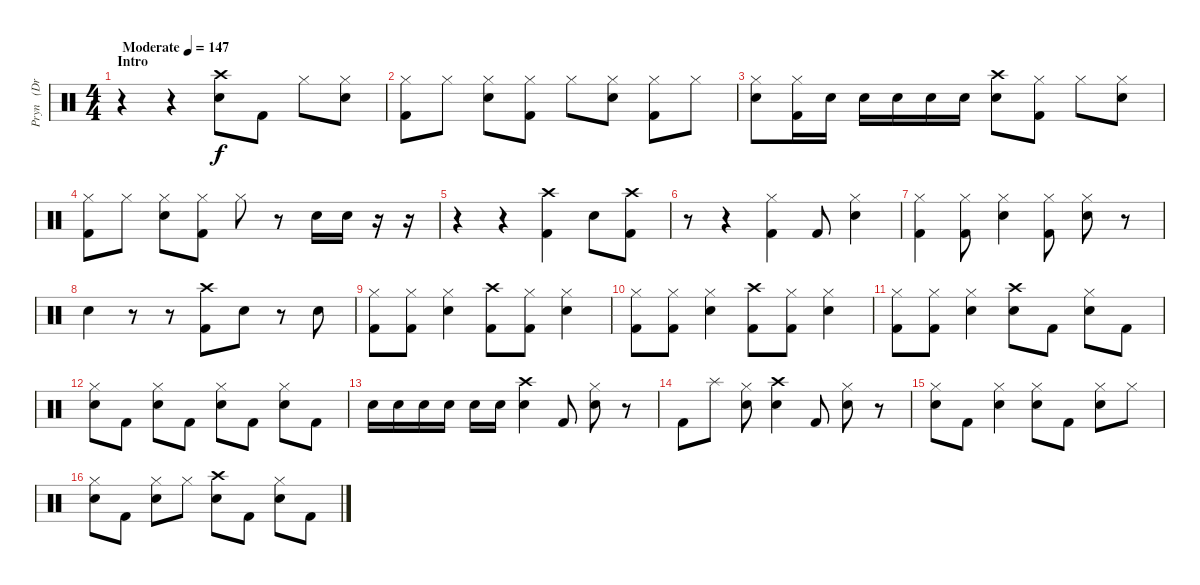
\track ("Pryn   (Drums)" "Pryn   (Dr") {instrument percussion}
\staff {score}
\articulation defaults
\ts (4 4)
\section ("" "Intro")
\tempo (147 "Moderate")
\clef neutral
\ks c
r.4{dy f} r.4 ("Crash high (hit)" "Electric Snare (hit)").8 "Kick (hit) 2".8 "Hi-Hat (closed)".8 ("Hi-Hat (closed)" "Electric Snare (hit)").8 |
("Hi-Hat (closed)" "Kick (hit) 2").8 "Hi-Hat (closed)".8 ("Hi-Hat (closed)" "Electric Snare (hit)").8 ("Hi-Hat (closed)" "Kick (hit) 2").8 "Hi-Hat (closed)".8 ("Hi-Hat (closed)" "Electric Snare (hit)").8 ("Hi-Hat (closed)" "Kick (hit) 2").8 "Hi-Hat (closed)".8 |
("Hi-Hat (closed)" "Electric Snare (hit)").8 ("Kick (hit) 2" "Hi-Hat (closed)").16 "Electric Snare (hit)".16 "Electric Snare (hit)".16 "Electric Snare (hit)".16 "Electric Snare (hit)".16 "Electric Snare (hit)".16 ("Electric Snare (hit)" "Crash high (hit)").8 ("Hi-Hat (closed)" "Kick (hit) 2").8 "Hi-Hat (closed)".8 ("Hi-Hat (closed)" "Electric Snare (hit)").8 |
("Hi-Hat (closed)" "Kick (hit) 2").8 "Hi-Hat (closed)".8 ("Hi-Hat (closed)" "Electric Snare (hit)").8 ("Hi-Hat (closed)" "Kick (hit) 2").8 "Hi-Hat (closed)".8 r.8 "Electric Snare (hit)".16 "Electric Snare (hit)".16 r.16 r.16 |
r.4 r.4 ("Crash high (hit)" "Kick (hit) 2").4 "Electric Snare (hit)".8 ("Kick (hit) 2" "Crash high (hit)").8 |
r.8 r.4 ("Kick (hit) 2" "Hi-Hat (closed)").4 "Kick (hit) 2".8 ("Electric Snare (hit)" "Hi-Hat (closed)").4 |
("Kick (hit) 2" "Hi-Hat (closed)").4 ("Hi-Hat (closed)" "Kick (hit) 2").8 ("Electric Snare (hit)" "Hi-Hat (closed)").4 ("Hi-Hat (closed)" "Kick (hit) 2").8 ("Hi-Hat (closed)" "Electric Snare (hit)").8 r.8 |
"Electric Snare (hit)".4 r.8 r.8 ("Crash high (hit)" "Kick (hit) 2").8 "Electric Snare (hit)".8 r.8 "Electric Snare (hit)".8 |
("Kick (hit) 2" "Hi-Hat (closed)").8 ("Hi-Hat (closed)" "Kick (hit) 2").8 ("Electric Snare (hit)" "Hi-Hat (closed)").4 ("Kick (hit) 2" "Crash high (hit)").8 ("Hi-Hat (closed)" "Kick (hit) 2").8 ("Electric Snare (hit)" "Hi-Hat (closed)").4 |
("Kick (hit) 2" "Hi-Hat (closed)").8 ("Hi-Hat (closed)" "Kick (hit) 2").8 ("Electric Snare (hit)" "Hi-Hat (closed)").4 ("Kick (hit) 2" "Crash high (hit)").8 ("Hi-Hat (closed)" "Kick (hit) 2").8 ("Electric Snare (hit)" "Hi-Hat (closed)").4 |
("Kick (hit) 2" "Hi-Hat (closed)").8 ("Hi-Hat (closed)" "Kick (hit) 2").8 ("Electric Snare (hit)" "Hi-Hat (closed)").4 ("Electric Snare (hit)" "Crash high (hit)").8 "Kick (hit) 2".8 ("Hi-Hat (closed)" "Electric Snare (hit)").8 "Kick (hit) 2".8 |
("Electric Snare (hit)" "Hi-Hat (closed)").8 "Kick (hit) 2".8 ("Hi-Hat (closed)" "Electric Snare (hit)").8 "Kick (hit) 2".8 ("Electric Snare (hit)" "Hi-Hat (closed)").8 "Kick (hit) 2".8 ("Hi-Hat (closed)" "Electric Snare (hit)").8 "Kick (hit) 2".8 |
"Electric Snare (hit)".16 "Electric Snare (hit)".16 "Electric Snare (hit)".16 "Electric Snare (hit)".16 "Electric Snare (hit)".16 "Electric Snare (hit)".16 ("Electric Snare (hit)" "Crash high (hit)").4 "Kick (hit) 2".8 ("Electric Snare (hit)" "Hi-Hat (closed)").8 r.8 |
"Kick (hit) 2".8 "Splash (hit)".8 ("Electric Snare (hit)" "Hi-Hat (closed)").8 ("Crash high (hit)" "Hand Clap (hit)").4 "Kick (hit) 2".8 ("Hi-Hat (closed)" "Electric Snare (hit)").8 r.8 |
("Electric Snare (hit)" "Hi-Hat (closed)").8 "Kick (hit) 2".8 ("Electric Snare (hit)" "Hi-Hat (closed)").4 ("Electric Snare (hit)" "Hi-Hat (closed)").8 "Kick (hit) 2".8 ("Hi-Hat (closed)" "Electric Snare (hit)").8 "Hi-Hat (closed)".8 |
("Electric Snare (hit)" "Hi-Hat (closed)").8 "Kick (hit) 2".8 ("Electric Snare (hit)" "Hi-Hat (closed)").8 "Hi-Hat (closed)".8 ("Crash high (hit)" "Electric Snare (hit)").8 "Kick (hit) 2".8 ("Electric Snare (hit)" "Hi-Hat (closed)").8 "Kick (hit) 2".8
